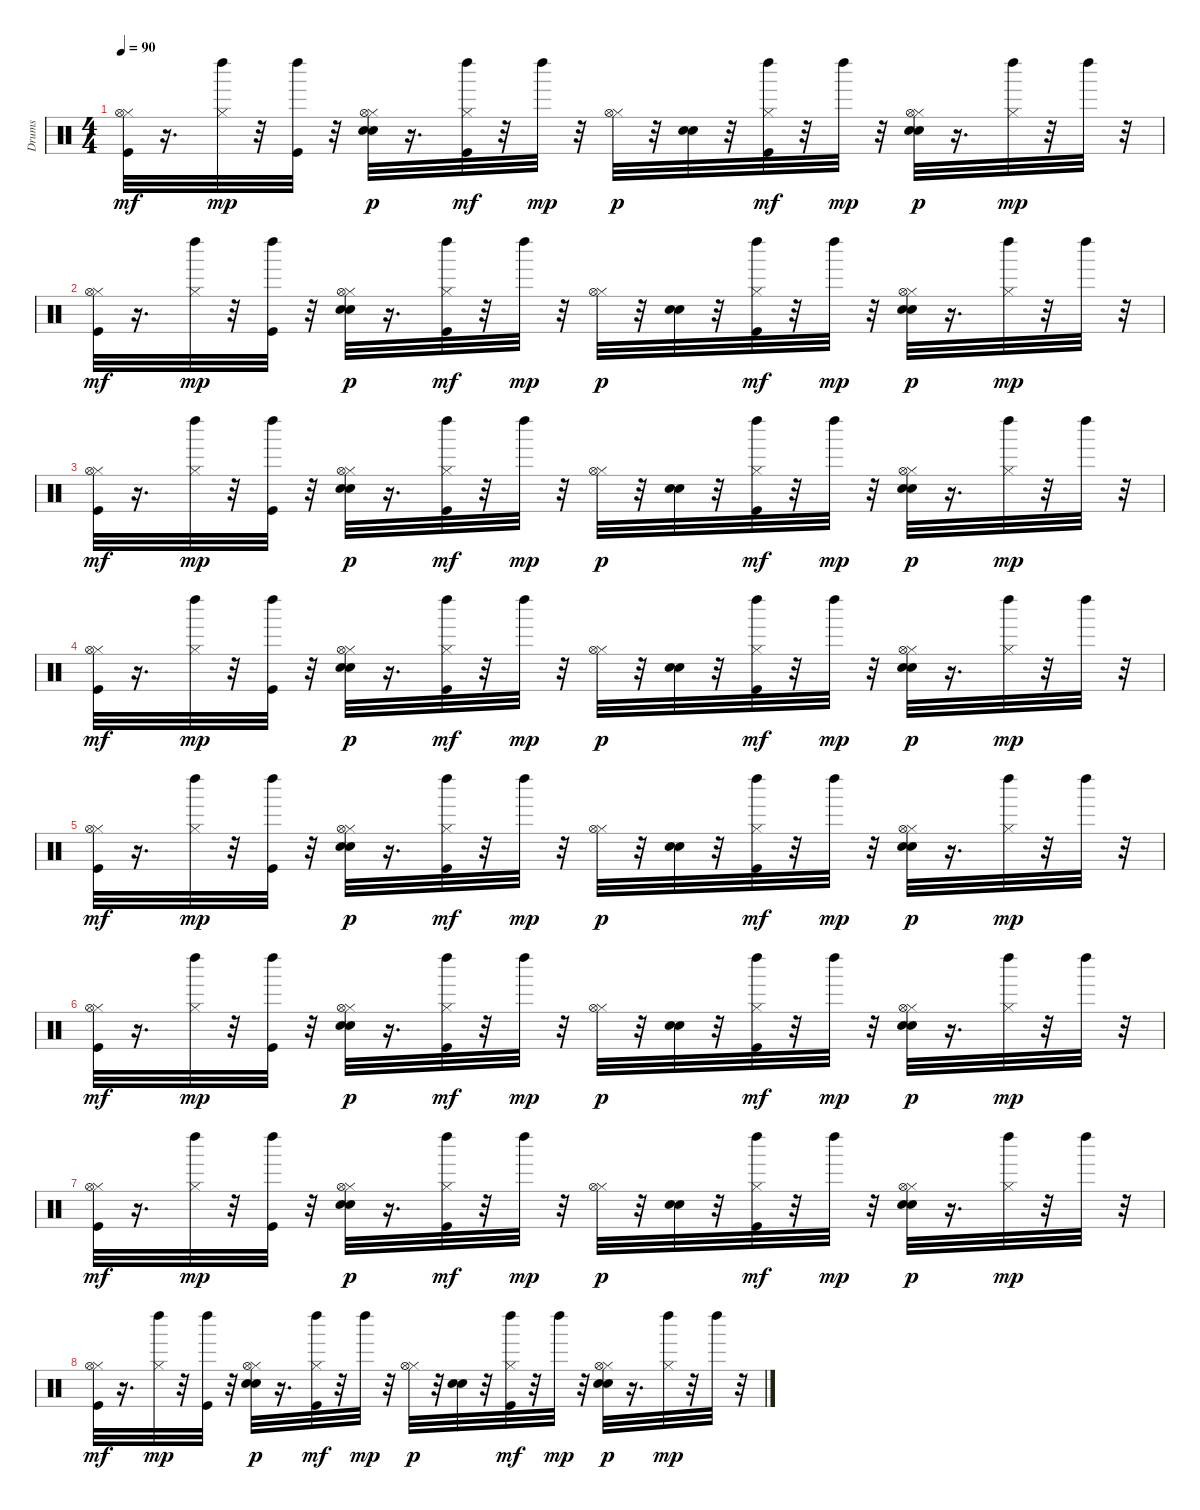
\track ("Drums" "Drums") {instrument percussion}
\staff {score}
\articulation defaults
\ts (4 4)
\tempo 90
\clef neutral
\ks c
("Hi-Hat (closed)" "Hi-Hat (open)" "Kick (hit)").32{dy mf} r.16{d} ("Hi-Hat (closed)" "Left Maraca (hit)").32{dy mp} r.32 ("Kick (hit)" "Left Maraca (hit)").32 r.32 ("Snare (hit) 2" "Electric Snare (hit)" "Hi-Hat (closed)" "Hi-Hat (open)").32{dy p} r.16{d} ("Hi-Hat (closed)" "Left Maraca (hit)" "Kick (hit)").32{dy mf} r.32 "Left Maraca (hit)".32{dy mp} r.32 ("Hi-Hat (closed)" "Hi-Hat (open)").32{dy p} r.32 ("Electric Snare (hit)" "Snare (hit) 2").32 r.32 ("Hi-Hat (closed)" "Left Maraca (hit)" "Kick (hit)").32{dy mf} r.32 "Left Maraca (hit)".32{dy mp} r.32 ("Snare (hit) 2" "Electric Snare (hit)" "Hi-Hat (closed)" "Hi-Hat (open)").32{dy p} r.16{d} ("Hi-Hat (closed)" "Left Maraca (hit)").32{dy mp} r.32 "Left Maraca (hit)".32 r.32 |
("Hi-Hat (closed)" "Hi-Hat (open)" "Kick (hit)").32{dy mf} r.16{d} ("Hi-Hat (closed)" "Left Maraca (hit)").32{dy mp} r.32 ("Kick (hit)" "Left Maraca (hit)").32 r.32 ("Snare (hit) 2" "Electric Snare (hit)" "Hi-Hat (closed)" "Hi-Hat (open)").32{dy p} r.16{d} ("Hi-Hat (closed)" "Left Maraca (hit)" "Kick (hit)").32{dy mf} r.32 "Left Maraca (hit)".32{dy mp} r.32 ("Hi-Hat (closed)" "Hi-Hat (open)").32{dy p} r.32 ("Electric Snare (hit)" "Snare (hit) 2").32 r.32 ("Hi-Hat (closed)" "Left Maraca (hit)" "Kick (hit)").32{dy mf} r.32 "Left Maraca (hit)".32{dy mp} r.32 ("Snare (hit) 2" "Electric Snare (hit)" "Hi-Hat (closed)" "Hi-Hat (open)").32{dy p} r.16{d} ("Hi-Hat (closed)" "Left Maraca (hit)").32{dy mp} r.32 "Left Maraca (hit)".32 r.32 |
("Hi-Hat (closed)" "Hi-Hat (open)" "Kick (hit)").32{dy mf} r.16{d} ("Hi-Hat (closed)" "Left Maraca (hit)").32{dy mp} r.32 ("Kick (hit)" "Left Maraca (hit)").32 r.32 ("Snare (hit) 2" "Electric Snare (hit)" "Hi-Hat (closed)" "Hi-Hat (open)").32{dy p} r.16{d} ("Hi-Hat (closed)" "Left Maraca (hit)" "Kick (hit)").32{dy mf} r.32 "Left Maraca (hit)".32{dy mp} r.32 ("Hi-Hat (closed)" "Hi-Hat (open)").32{dy p} r.32 ("Electric Snare (hit)" "Snare (hit) 2").32 r.32 ("Hi-Hat (closed)" "Left Maraca (hit)" "Kick (hit)").32{dy mf} r.32 "Left Maraca (hit)".32{dy mp} r.32 ("Snare (hit) 2" "Electric Snare (hit)" "Hi-Hat (closed)" "Hi-Hat (open)").32{dy p} r.16{d} ("Hi-Hat (closed)" "Left Maraca (hit)").32{dy mp} r.32 "Left Maraca (hit)".32 r.32 |
("Hi-Hat (closed)" "Hi-Hat (open)" "Kick (hit)").32{dy mf} r.16{d} ("Hi-Hat (closed)" "Left Maraca (hit)").32{dy mp} r.32 ("Kick (hit)" "Left Maraca (hit)").32 r.32 ("Snare (hit) 2" "Electric Snare (hit)" "Hi-Hat (closed)" "Hi-Hat (open)").32{dy p} r.16{d} ("Hi-Hat (closed)" "Left Maraca (hit)" "Kick (hit)").32{dy mf} r.32 "Left Maraca (hit)".32{dy mp} r.32 ("Hi-Hat (closed)" "Hi-Hat (open)").32{dy p} r.32 ("Electric Snare (hit)" "Snare (hit) 2").32 r.32 ("Hi-Hat (closed)" "Left Maraca (hit)" "Kick (hit)").32{dy mf} r.32 "Left Maraca (hit)".32{dy mp} r.32 ("Snare (hit) 2" "Electric Snare (hit)" "Hi-Hat (closed)" "Hi-Hat (open)").32{dy p} r.16{d} ("Hi-Hat (closed)" "Left Maraca (hit)").32{dy mp} r.32 "Left Maraca (hit)".32 r.32 |
("Hi-Hat (closed)" "Hi-Hat (open)" "Kick (hit)").32{dy mf} r.16{d} ("Hi-Hat (closed)" "Left Maraca (hit)").32{dy mp} r.32 ("Kick (hit)" "Left Maraca (hit)").32 r.32 ("Snare (hit) 2" "Electric Snare (hit)" "Hi-Hat (closed)" "Hi-Hat (open)").32{dy p} r.16{d} ("Hi-Hat (closed)" "Left Maraca (hit)" "Kick (hit)").32{dy mf} r.32 "Left Maraca (hit)".32{dy mp} r.32 ("Hi-Hat (closed)" "Hi-Hat (open)").32{dy p} r.32 ("Electric Snare (hit)" "Snare (hit) 2").32 r.32 ("Hi-Hat (closed)" "Left Maraca (hit)" "Kick (hit)").32{dy mf} r.32 "Left Maraca (hit)".32{dy mp} r.32 ("Snare (hit) 2" "Electric Snare (hit)" "Hi-Hat (closed)" "Hi-Hat (open)").32{dy p} r.16{d} ("Hi-Hat (closed)" "Left Maraca (hit)").32{dy mp} r.32 "Left Maraca (hit)".32 r.32 |
("Hi-Hat (closed)" "Hi-Hat (open)" "Kick (hit)").32{dy mf} r.16{d} ("Hi-Hat (closed)" "Left Maraca (hit)").32{dy mp} r.32 ("Kick (hit)" "Left Maraca (hit)").32 r.32 ("Snare (hit) 2" "Electric Snare (hit)" "Hi-Hat (closed)" "Hi-Hat (open)").32{dy p} r.16{d} ("Hi-Hat (closed)" "Left Maraca (hit)" "Kick (hit)").32{dy mf} r.32 "Left Maraca (hit)".32{dy mp} r.32 ("Hi-Hat (closed)" "Hi-Hat (open)").32{dy p} r.32 ("Electric Snare (hit)" "Snare (hit) 2").32 r.32 ("Hi-Hat (closed)" "Left Maraca (hit)" "Kick (hit)").32{dy mf} r.32 "Left Maraca (hit)".32{dy mp} r.32 ("Snare (hit) 2" "Electric Snare (hit)" "Hi-Hat (closed)" "Hi-Hat (open)").32{dy p} r.16{d} ("Hi-Hat (closed)" "Left Maraca (hit)").32{dy mp} r.32 "Left Maraca (hit)".32 r.32 |
("Hi-Hat (closed)" "Hi-Hat (open)" "Kick (hit)").32{dy mf} r.16{d} ("Hi-Hat (closed)" "Left Maraca (hit)").32{dy mp} r.32 ("Kick (hit)" "Left Maraca (hit)").32 r.32 ("Snare (hit) 2" "Electric Snare (hit)" "Hi-Hat (closed)" "Hi-Hat (open)").32{dy p} r.16{d} ("Hi-Hat (closed)" "Left Maraca (hit)" "Kick (hit)").32{dy mf} r.32 "Left Maraca (hit)".32{dy mp} r.32 ("Hi-Hat (closed)" "Hi-Hat (open)").32{dy p} r.32 ("Electric Snare (hit)" "Snare (hit) 2").32 r.32 ("Hi-Hat (closed)" "Left Maraca (hit)" "Kick (hit)").32{dy mf} r.32 "Left Maraca (hit)".32{dy mp} r.32 ("Snare (hit) 2" "Electric Snare (hit)" "Hi-Hat (closed)" "Hi-Hat (open)").32{dy p} r.16{d} ("Hi-Hat (closed)" "Left Maraca (hit)").32{dy mp} r.32 "Left Maraca (hit)".32 r.32 |
("Hi-Hat (closed)" "Hi-Hat (open)" "Kick (hit)").32{dy mf} r.16{d} ("Hi-Hat (closed)" "Left Maraca (hit)").32{dy mp} r.32 ("Kick (hit)" "Left Maraca (hit)").32 r.32 ("Snare (hit) 2" "Electric Snare (hit)" "Hi-Hat (closed)" "Hi-Hat (open)").32{dy p} r.16{d} ("Hi-Hat (closed)" "Left Maraca (hit)" "Kick (hit)").32{dy mf} r.32 "Left Maraca (hit)".32{dy mp} r.32 ("Hi-Hat (closed)" "Hi-Hat (open)").32{dy p} r.32 ("Electric Snare (hit)" "Snare (hit) 2").32 r.32 ("Hi-Hat (closed)" "Left Maraca (hit)" "Kick (hit)").32{dy mf} r.32 "Left Maraca (hit)".32{dy mp} r.32 ("Snare (hit) 2" "Electric Snare (hit)" "Hi-Hat (closed)" "Hi-Hat (open)").32{dy p} r.16{d} ("Hi-Hat (closed)" "Left Maraca (hit)").32{dy mp} r.32 "Left Maraca (hit)".32 r.32
